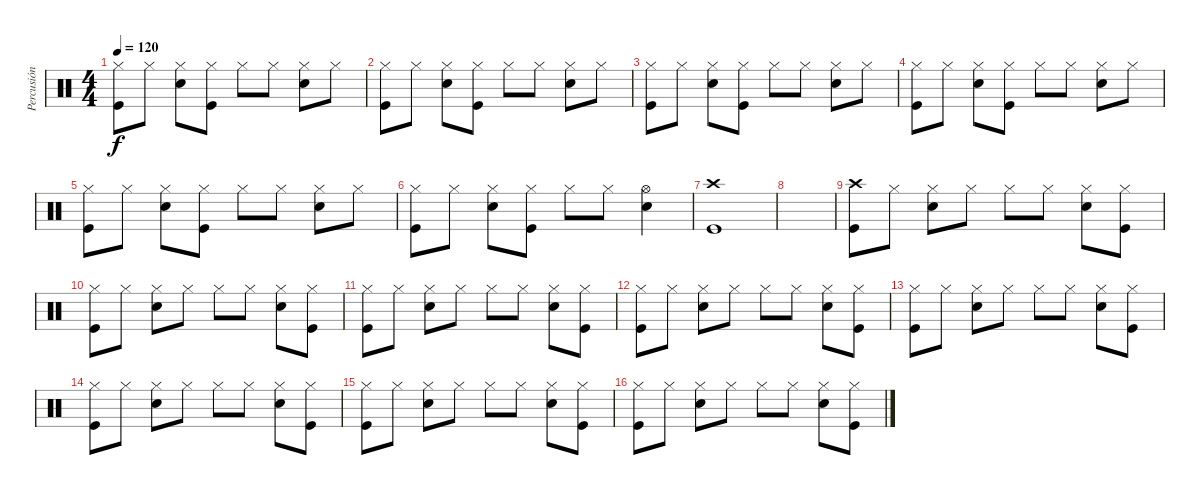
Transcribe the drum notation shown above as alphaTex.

\track ("Percusión" "Percusión") {instrument percussion}
\staff {score}
\articulation defaults
\ts (4 4)
\tempo 120
\clef neutral
\ks c
("Hi-Hat (closed)" "Kick (hit)").8{dy f} "Hi-Hat (closed)".8 ("Hi-Hat (closed)" "Electric Snare (hit)").8 ("Hi-Hat (closed)" "Kick (hit)").8 "Hi-Hat (closed)".8 "Hi-Hat (closed)".8 ("Hi-Hat (closed)" "Electric Snare (hit)").8 "Hi-Hat (closed)".8 |
("Hi-Hat (closed)" "Kick (hit)").8 "Hi-Hat (closed)".8 ("Hi-Hat (closed)" "Electric Snare (hit)").8 ("Hi-Hat (closed)" "Kick (hit)").8 "Hi-Hat (closed)".8 "Hi-Hat (closed)".8 ("Hi-Hat (closed)" "Electric Snare (hit)").8 "Hi-Hat (closed)".8 |
("Hi-Hat (closed)" "Kick (hit)").8 "Hi-Hat (closed)".8 ("Hi-Hat (closed)" "Electric Snare (hit)").8 ("Hi-Hat (closed)" "Kick (hit)").8 "Hi-Hat (closed)".8 "Hi-Hat (closed)".8 ("Hi-Hat (closed)" "Electric Snare (hit)").8 "Hi-Hat (closed)".8 |
("Hi-Hat (closed)" "Kick (hit)").8 "Hi-Hat (closed)".8 ("Hi-Hat (closed)" "Electric Snare (hit)").8 ("Hi-Hat (closed)" "Kick (hit)").8 "Hi-Hat (closed)".8 "Hi-Hat (closed)".8 ("Hi-Hat (closed)" "Electric Snare (hit)").8 "Hi-Hat (closed)".8 |
("Hi-Hat (closed)" "Kick (hit)").8 "Hi-Hat (closed)".8 ("Hi-Hat (closed)" "Electric Snare (hit)").8 ("Hi-Hat (closed)" "Kick (hit)").8 "Hi-Hat (closed)".8 "Hi-Hat (closed)".8 ("Hi-Hat (closed)" "Electric Snare (hit)").8 "Hi-Hat (closed)".8 |
("Hi-Hat (closed)" "Kick (hit)").8 "Hi-Hat (closed)".8 ("Hi-Hat (closed)" "Electric Snare (hit)").8 ("Hi-Hat (closed)" "Kick (hit)").8 "Hi-Hat (closed)".8 "Hi-Hat (closed)".8 ("Hi-Hat (open)" "Electric Snare (hit)").4 |
("Crash high (hit)" "Kick (hit)").1 |
|
("Crash high (hit)" "Kick (hit)").8 "Hi-Hat (closed)".8 ("Hi-Hat (closed)" "Snare (hit) 2").8 "Hi-Hat (closed)".8 "Hi-Hat (closed)".8 "Hi-Hat (closed)".8 ("Hi-Hat (closed)" "Snare (hit) 2").8 ("Hi-Hat (closed)" "Kick (hit)").8 |
("Hi-Hat (closed)" "Kick (hit)").8 "Hi-Hat (closed)".8 ("Hi-Hat (closed)" "Snare (hit) 2").8 "Hi-Hat (closed)".8 "Hi-Hat (closed)".8 "Hi-Hat (closed)".8 ("Hi-Hat (closed)" "Snare (hit) 2").8 ("Hi-Hat (closed)" "Kick (hit)").8 |
("Hi-Hat (closed)" "Kick (hit)").8 "Hi-Hat (closed)".8 ("Hi-Hat (closed)" "Snare (hit) 2").8 "Hi-Hat (closed)".8 "Hi-Hat (closed)".8 "Hi-Hat (closed)".8 ("Hi-Hat (closed)" "Snare (hit) 2").8 ("Hi-Hat (closed)" "Kick (hit)").8 |
("Hi-Hat (closed)" "Kick (hit)").8 "Hi-Hat (closed)".8 ("Hi-Hat (closed)" "Snare (hit) 2").8 "Hi-Hat (closed)".8 "Hi-Hat (closed)".8 "Hi-Hat (closed)".8 ("Hi-Hat (closed)" "Snare (hit) 2").8 ("Hi-Hat (closed)" "Kick (hit)").8 |
("Hi-Hat (closed)" "Kick (hit)").8 "Hi-Hat (closed)".8 ("Hi-Hat (closed)" "Snare (hit) 2").8 "Hi-Hat (closed)".8 "Hi-Hat (closed)".8 "Hi-Hat (closed)".8 ("Hi-Hat (closed)" "Snare (hit) 2").8 ("Hi-Hat (closed)" "Kick (hit)").8 |
("Hi-Hat (closed)" "Kick (hit)").8 "Hi-Hat (closed)".8 ("Hi-Hat (closed)" "Snare (hit) 2").8 "Hi-Hat (closed)".8 "Hi-Hat (closed)".8 "Hi-Hat (closed)".8 ("Hi-Hat (closed)" "Snare (hit) 2").8 ("Hi-Hat (closed)" "Kick (hit)").8 |
("Hi-Hat (closed)" "Kick (hit)").8 "Hi-Hat (closed)".8 ("Hi-Hat (closed)" "Snare (hit) 2").8 "Hi-Hat (closed)".8 "Hi-Hat (closed)".8 "Hi-Hat (closed)".8 ("Hi-Hat (closed)" "Snare (hit) 2").8 ("Hi-Hat (closed)" "Kick (hit)").8 |
("Hi-Hat (closed)" "Kick (hit)").8 "Hi-Hat (closed)".8 ("Hi-Hat (closed)" "Snare (hit) 2").8 "Hi-Hat (closed)".8 "Hi-Hat (closed)".8 "Hi-Hat (closed)".8 ("Hi-Hat (closed)" "Snare (hit) 2").8 ("Hi-Hat (closed)" "Kick (hit)").8
